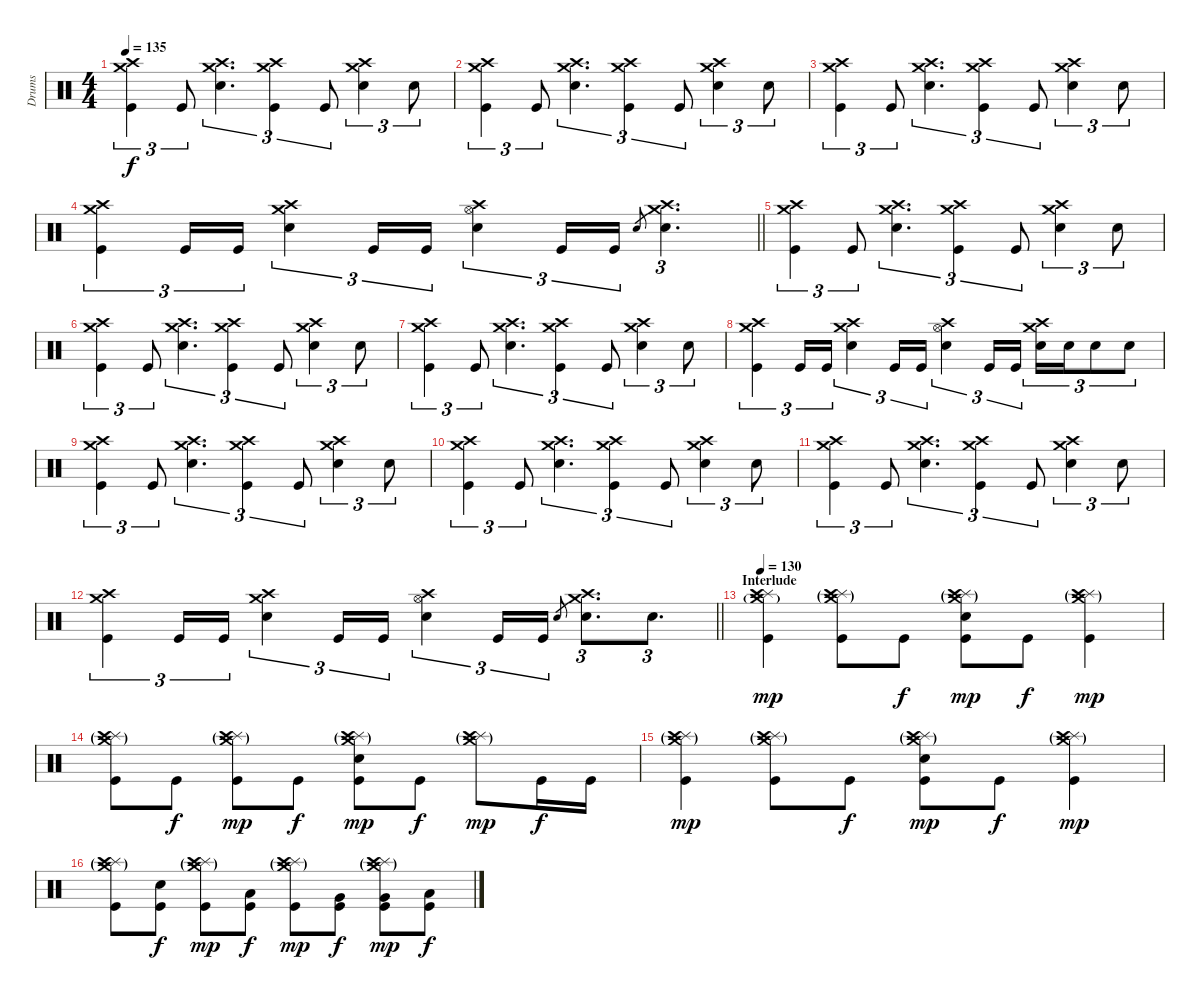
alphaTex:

\track ("Drums" "Drums") {instrument percussion}
\staff {score}
\articulation defaults
\ts (4 4)
\tempo 135
\clef neutral
\ks c
("Crash medium (hit)" "Crash high (hit)" "Kick (hit)").4{tu (3 2) dy f} "Kick (hit)".8{tu (3 2)} ("Crash medium (hit)" "Crash high (hit)" "Electric Snare (hit)").4{d tu (3 2)} ("Crash medium (hit)" "Crash high (hit)" "Kick (hit)").4{tu (3 2)} "Kick (hit)".8{tu (3 2)} ("Crash medium (hit)" "Crash high (hit)" "Electric Snare (hit)").4{tu (3 2)} "Electric Snare (hit)".8{tu (3 2)} |
("Crash medium (hit)" "Crash high (hit)" "Kick (hit)").4{tu (3 2)} "Kick (hit)".8{tu (3 2)} ("Crash medium (hit)" "Crash high (hit)" "Electric Snare (hit)").4{d tu (3 2)} ("Crash medium (hit)" "Crash high (hit)" "Kick (hit)").4{tu (3 2)} "Kick (hit)".8{tu (3 2)} ("Crash medium (hit)" "Crash high (hit)" "Electric Snare (hit)").4{tu (3 2)} "Electric Snare (hit)".8{tu (3 2)} |
("Crash medium (hit)" "Crash high (hit)" "Kick (hit)").4{tu (3 2)} "Kick (hit)".8{tu (3 2)} ("Crash medium (hit)" "Crash high (hit)" "Electric Snare (hit)").4{d tu (3 2)} ("Crash medium (hit)" "Crash high (hit)" "Kick (hit)").4{tu (3 2)} "Kick (hit)".8{tu (3 2)} ("Crash medium (hit)" "Crash high (hit)" "Electric Snare (hit)").4{tu (3 2)} "Electric Snare (hit)".8{tu (3 2)} |
\barLineRight lightlight
("Crash medium (hit)" "Crash high (hit)" "Kick (hit)").4{tu (3 2)} "Kick (hit)".16{tu (3 2)} "Kick (hit)".16{tu (3 2)} ("Crash medium (hit)" "Crash high (hit)" "Electric Snare (hit)").4{tu (3 2)} "Kick (hit)".16{tu (3 2)} "Kick (hit)".16{tu (3 2)} ("Hi-Hat (open)" "Crash high (hit)" "Electric Snare (hit)").4{tu (3 2)} "Kick (hit)".16{tu (3 2)} "Kick (hit)".16{tu (3 2)} "Electric Snare (hit)".8{gr} ("Crash medium (hit)" "Crash high (hit)" "Electric Snare (hit)").4{d tu (3 2)} |
("Crash medium (hit)" "Crash high (hit)" "Kick (hit)").4{tu (3 2)} "Kick (hit)".8{tu (3 2)} ("Crash medium (hit)" "Crash high (hit)" "Electric Snare (hit)").4{d tu (3 2)} ("Crash medium (hit)" "Crash high (hit)" "Kick (hit)").4{tu (3 2)} "Kick (hit)".8{tu (3 2)} ("Crash medium (hit)" "Crash high (hit)" "Electric Snare (hit)").4{tu (3 2)} "Electric Snare (hit)".8{tu (3 2)} |
("Crash medium (hit)" "Crash high (hit)" "Kick (hit)").4{tu (3 2)} "Kick (hit)".8{tu (3 2)} ("Crash medium (hit)" "Crash high (hit)" "Electric Snare (hit)").4{d tu (3 2)} ("Crash medium (hit)" "Crash high (hit)" "Kick (hit)").4{tu (3 2)} "Kick (hit)".8{tu (3 2)} ("Crash medium (hit)" "Crash high (hit)" "Electric Snare (hit)").4{tu (3 2)} "Electric Snare (hit)".8{tu (3 2)} |
("Crash medium (hit)" "Crash high (hit)" "Kick (hit)").4{tu (3 2)} "Kick (hit)".8{tu (3 2)} ("Crash medium (hit)" "Crash high (hit)" "Electric Snare (hit)").4{d tu (3 2)} ("Crash medium (hit)" "Crash high (hit)" "Kick (hit)").4{tu (3 2)} "Kick (hit)".8{tu (3 2)} ("Crash medium (hit)" "Crash high (hit)" "Electric Snare (hit)").4{tu (3 2)} "Electric Snare (hit)".8{tu (3 2)} |
("Crash medium (hit)" "Crash high (hit)" "Kick (hit)").4{tu (3 2)} "Kick (hit)".16{tu (3 2)} "Kick (hit)".16{tu (3 2)} ("Crash medium (hit)" "Crash high (hit)" "Electric Snare (hit)").4{tu (3 2)} "Kick (hit)".16{tu (3 2)} "Kick (hit)".16{tu (3 2)} ("Hi-Hat (open)" "Crash high (hit)" "Electric Snare (hit)").4{tu (3 2)} "Kick (hit)".16{tu (3 2)} "Kick (hit)".16{tu (3 2)} ("Crash medium (hit)" "Crash high (hit)" "Electric Snare (hit)").16{tu (3 2)} "Electric Snare (hit)".16{tu (3 2)} "Electric Snare (hit)".8{tu (3 2)} "Electric Snare (hit)".8{tu (3 2)} |
("Crash medium (hit)" "Crash high (hit)" "Kick (hit)").4{tu (3 2)} "Kick (hit)".8{tu (3 2)} ("Crash medium (hit)" "Crash high (hit)" "Electric Snare (hit)").4{d tu (3 2)} ("Crash medium (hit)" "Crash high (hit)" "Kick (hit)").4{tu (3 2)} "Kick (hit)".8{tu (3 2)} ("Crash medium (hit)" "Crash high (hit)" "Electric Snare (hit)").4{tu (3 2)} "Electric Snare (hit)".8{tu (3 2)} |
("Crash medium (hit)" "Crash high (hit)" "Kick (hit)").4{tu (3 2)} "Kick (hit)".8{tu (3 2)} ("Crash medium (hit)" "Crash high (hit)" "Electric Snare (hit)").4{d tu (3 2)} ("Crash medium (hit)" "Crash high (hit)" "Kick (hit)").4{tu (3 2)} "Kick (hit)".8{tu (3 2)} ("Crash medium (hit)" "Crash high (hit)" "Electric Snare (hit)").4{tu (3 2)} "Electric Snare (hit)".8{tu (3 2)} |
("Crash medium (hit)" "Crash high (hit)" "Kick (hit)").4{tu (3 2)} "Kick (hit)".8{tu (3 2)} ("Crash medium (hit)" "Crash high (hit)" "Electric Snare (hit)").4{d tu (3 2)} ("Crash medium (hit)" "Crash high (hit)" "Kick (hit)").4{tu (3 2)} "Kick (hit)".8{tu (3 2)} ("Crash medium (hit)" "Crash high (hit)" "Electric Snare (hit)").4{tu (3 2)} "Electric Snare (hit)".8{tu (3 2)} |
\barLineRight lightlight
("Crash medium (hit)" "Crash high (hit)" "Kick (hit)").4{tu (3 2)} "Kick (hit)".16{tu (3 2)} "Kick (hit)".16{tu (3 2)} ("Crash medium (hit)" "Crash high (hit)" "Electric Snare (hit)").4{tu (3 2)} "Kick (hit)".16{tu (3 2)} "Kick (hit)".16{tu (3 2)} ("Hi-Hat (open)" "Crash high (hit)" "Electric Snare (hit)").4{tu (3 2)} "Kick (hit)".16{tu (3 2)} "Kick (hit)".16{tu (3 2)} "Electric Snare (hit)".8{gr} ("Crash medium (hit)" "Crash high (hit)" "Electric Snare (hit)").8{d tu (3 2)} "Electric Snare (hit)".8{d tu (3 2)} |
\section ("" "Interlude")
\tempo 130
("Splash (hit)" "Crash medium (hit)"{g} "Crash high (hit)" "Kick (hit)").4{dy mp} ("Splash (hit)" "Crash medium (hit)"{g} "Crash high (hit)"{g} "Kick (hit)").8 "Kick (hit)".8{dy f} ("Splash (hit)" "Crash medium (hit)"{g} "Crash high (hit)"{g} "Electric Snare (hit)" "Kick (hit)").8{dy mp} "Kick (hit)".8{dy f} ("Splash (hit)" "Crash medium (hit)"{g} "Crash high (hit)"{g} "Kick (hit)").4{dy mp} |
("Splash (hit)" "Crash medium (hit)"{g} "Crash high (hit)"{g} "Kick (hit)").8 "Kick (hit)".8{dy f} ("Splash (hit)" "Crash medium (hit)"{g} "Crash high (hit)"{g} "Kick (hit)").8{dy mp} "Kick (hit)".8{dy f} ("Splash (hit)" "Crash medium (hit)"{g} "Crash high (hit)"{g} "Electric Snare (hit)" "Kick (hit)").8{dy mp} "Kick (hit)".8{dy f} ("Splash (hit)" "Crash medium (hit)"{g} "Crash high (hit)"{g}).8{dy mp} "Kick (hit)".16{dy f} "Kick (hit)".16 |
("Splash (hit)" "Crash medium (hit)"{g} "Crash high (hit)"{g} "Kick (hit)").4{dy mp} ("Splash (hit)" "Crash medium (hit)"{g} "Crash high (hit)"{g} "Kick (hit)").8 "Kick (hit)".8{dy f} ("Splash (hit)" "Crash medium (hit)"{g} "Crash high (hit)"{g} "Electric Snare (hit)" "Kick (hit)").8{dy mp} "Kick (hit)".8{dy f} ("Splash (hit)" "Crash medium (hit)"{g} "Crash high (hit)"{g} "Kick (hit)").4{dy mp} |
("Splash (hit)" "Crash medium (hit)"{g} "Crash high (hit)"{g} "Kick (hit)").8 ("Electric Snare (hit)" "Kick (hit)").8{dy f} ("Splash (hit)" "Crash medium (hit)"{g} "Crash high (hit)"{g} "Kick (hit)").8{dy mp} ("Low Floor Tom (hit)" "Kick (hit)").8{dy f} ("Splash (hit)" "Crash medium (hit)"{g} "Crash high (hit)"{g} "Kick (hit)").8{dy mp} ("Very Low Tom (hit)" "Kick (hit)").8{dy f} ("Splash (hit)" "Crash medium (hit)"{g} "Crash high (hit)"{g} "Very Low Tom (hit)" "Kick (hit)").8{dy mp} ("Low Floor Tom (hit)" "Kick (hit)").8{dy f}
